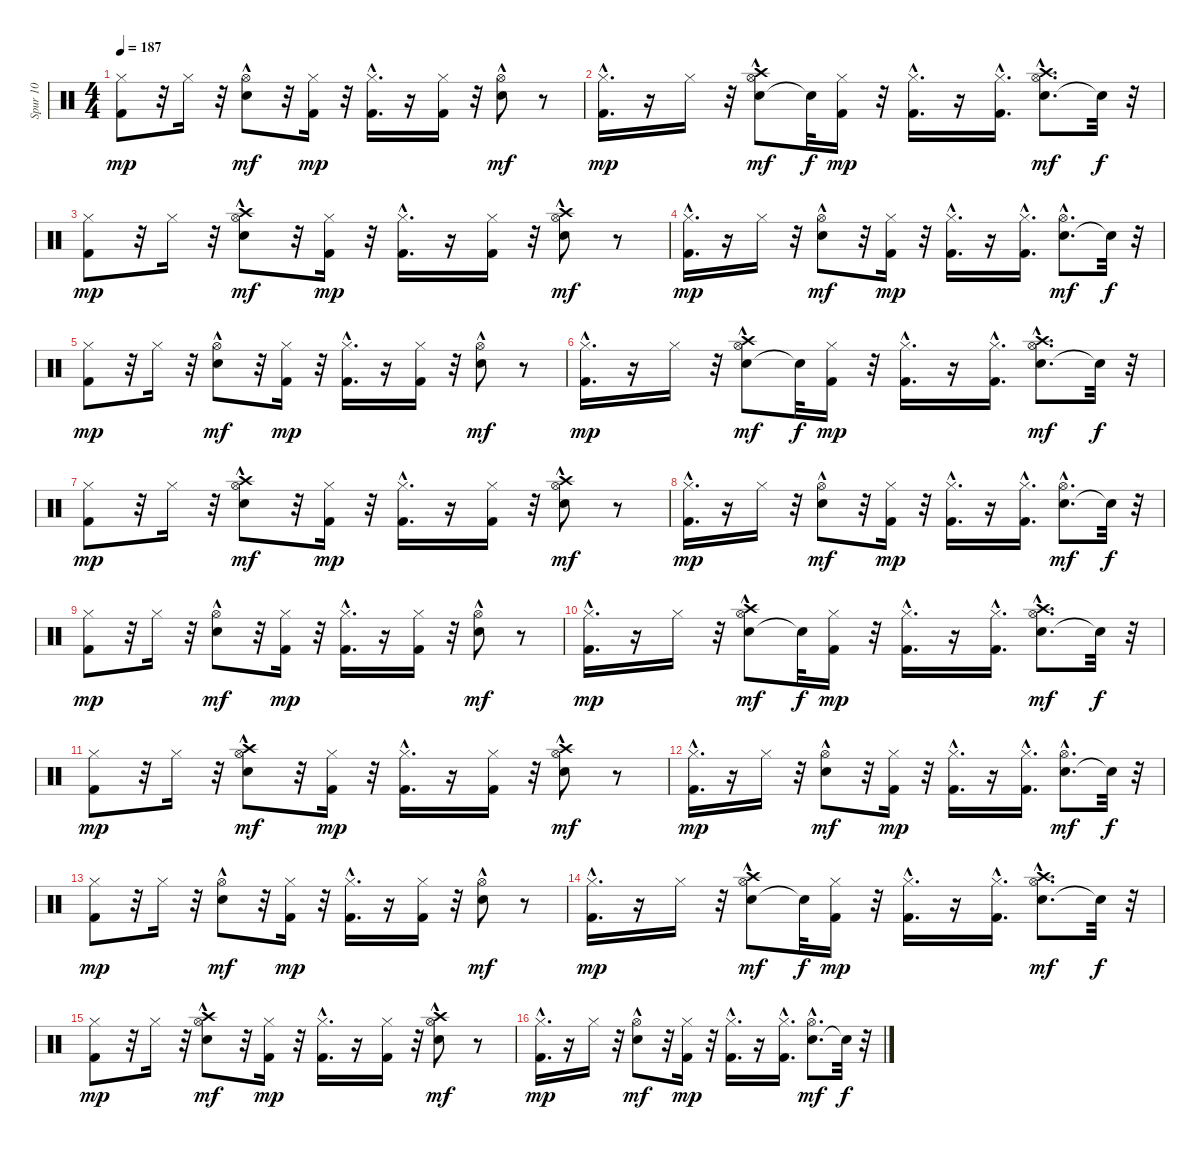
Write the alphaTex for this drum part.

\track ("Spur 10" "Spur 10") {instrument percussion}
\staff {score}
\articulation defaults
\ts (4 4)
\tempo 187
\clef neutral
\ks c
("Kick (hit) 2" "Hi-Hat (closed)").8{dy mp} r.32 "Hi-Hat (closed)".16 r.32 ("Electric Snare (hit)"{hac} "Hi-Hat (open)").8{dy mf} r.32 ("Kick (hit) 2" "Hi-Hat (closed)").16{dy mp} r.32 ("Kick (hit) 2"{hac} "Hi-Hat (closed)").16{d} r.16 ("Kick (hit) 2" "Hi-Hat (closed)").16 r.32 ("Electric Snare (hit)"{hac} "Hi-Hat (open)").8{dy mf} r.8 |
("Kick (hit) 2"{hac} "Hi-Hat (closed)").16{d dy mp} r.16 "Hi-Hat (closed)".16 r.32 ("Electric Snare (hit)"{hac} "Hi-Hat (open)" "Crash high (hit)").8{dy mf} "Snare (hit)"{t}.32{dy f} ("Kick (hit) 2" "Hi-Hat (closed)").16{dy mp} r.32 ("Kick (hit) 2"{hac} "Hi-Hat (closed)").16{d} r.16 ("Kick (hit) 2"{hac} "Hi-Hat (closed)").16{d} ("Electric Snare (hit)" "Hi-Hat (open)"{hac} "Crash high (hit)").8{d dy mf} "Snare (hit)"{t}.32{dy f} r.32 |
("Kick (hit) 2" "Hi-Hat (closed)").8{dy mp} r.32 "Hi-Hat (closed)".16 r.32 ("Electric Snare (hit)"{hac} "Hi-Hat (open)" "Crash high (hit)").8{dy mf} r.32 ("Kick (hit) 2" "Hi-Hat (closed)").16{dy mp} r.32 ("Kick (hit) 2"{hac} "Hi-Hat (closed)").16{d} r.16 ("Kick (hit) 2" "Hi-Hat (closed)").16 r.32 ("Electric Snare (hit)"{hac} "Hi-Hat (open)" "Crash high (hit)").8{dy mf} r.8 |
("Kick (hit) 2"{hac} "Hi-Hat (closed)").16{d dy mp} r.16 "Hi-Hat (closed)".16 r.32 ("Electric Snare (hit)"{hac} "Hi-Hat (open)").8{dy mf} r.32 ("Kick (hit) 2" "Hi-Hat (closed)").16{dy mp} r.32 ("Kick (hit) 2"{hac} "Hi-Hat (closed)").16{d} r.16 ("Kick (hit) 2"{hac} "Hi-Hat (closed)").16{d} ("Electric Snare (hit)" "Hi-Hat (open)"{hac}).8{d dy mf} "Snare (hit)"{t}.32{dy f} r.32 |
("Kick (hit) 2" "Hi-Hat (closed)").8{dy mp} r.32 "Hi-Hat (closed)".16 r.32 ("Electric Snare (hit)"{hac} "Hi-Hat (open)").8{dy mf} r.32 ("Kick (hit) 2" "Hi-Hat (closed)").16{dy mp} r.32 ("Kick (hit) 2"{hac} "Hi-Hat (closed)").16{d} r.16 ("Kick (hit) 2" "Hi-Hat (closed)").16 r.32 ("Electric Snare (hit)"{hac} "Hi-Hat (open)").8{dy mf} r.8 |
("Kick (hit) 2"{hac} "Hi-Hat (closed)").16{d dy mp} r.16 "Hi-Hat (closed)".16 r.32 ("Electric Snare (hit)"{hac} "Hi-Hat (open)" "Crash high (hit)").8{dy mf} "Snare (hit)"{t}.32{dy f} ("Kick (hit) 2" "Hi-Hat (closed)").16{dy mp} r.32 ("Kick (hit) 2"{hac} "Hi-Hat (closed)").16{d} r.16 ("Kick (hit) 2"{hac} "Hi-Hat (closed)").16{d} ("Electric Snare (hit)" "Hi-Hat (open)"{hac} "Crash high (hit)").8{d dy mf} "Snare (hit)"{t}.32{dy f} r.32 |
("Kick (hit) 2" "Hi-Hat (closed)").8{dy mp} r.32 "Hi-Hat (closed)".16 r.32 ("Electric Snare (hit)"{hac} "Hi-Hat (open)" "Crash high (hit)"{hac}).8{dy mf} r.32 ("Kick (hit) 2" "Hi-Hat (closed)").16{dy mp} r.32 ("Kick (hit) 2"{hac} "Hi-Hat (closed)").16{d} r.16 ("Kick (hit) 2" "Hi-Hat (closed)").16 r.32 ("Electric Snare (hit)"{hac} "Hi-Hat (open)" "Crash high (hit)"{hac}).8{dy mf} r.8 |
("Kick (hit) 2"{hac} "Hi-Hat (closed)").16{d dy mp} r.16 "Hi-Hat (closed)".16 r.32 ("Electric Snare (hit)"{hac} "Hi-Hat (open)").8{dy mf} r.32 ("Kick (hit) 2" "Hi-Hat (closed)").16{dy mp} r.32 ("Kick (hit) 2"{hac} "Hi-Hat (closed)").16{d} r.16 ("Kick (hit) 2"{hac} "Hi-Hat (closed)").16{d} ("Electric Snare (hit)" "Hi-Hat (open)"{hac}).8{d dy mf} "Snare (hit)"{t}.32{dy f} r.32 |
("Kick (hit) 2" "Hi-Hat (closed)").8{dy mp} r.32 "Hi-Hat (closed)".16 r.32 ("Electric Snare (hit)"{hac} "Hi-Hat (open)").8{dy mf} r.32 ("Kick (hit) 2" "Hi-Hat (closed)").16{dy mp} r.32 ("Kick (hit) 2"{hac} "Hi-Hat (closed)").16{d} r.16 ("Kick (hit) 2" "Hi-Hat (closed)").16 r.32 ("Electric Snare (hit)"{hac} "Hi-Hat (open)").8{dy mf} r.8 |
("Kick (hit) 2"{hac} "Hi-Hat (closed)").16{d dy mp} r.16 "Hi-Hat (closed)".16 r.32 ("Electric Snare (hit)"{hac} "Hi-Hat (open)" "Crash high (hit)").8{dy mf} "Snare (hit)"{t}.32{dy f} ("Kick (hit) 2" "Hi-Hat (closed)").16{dy mp} r.32 ("Kick (hit) 2"{hac} "Hi-Hat (closed)").16{d} r.16 ("Kick (hit) 2"{hac} "Hi-Hat (closed)").16{d} ("Electric Snare (hit)" "Hi-Hat (open)"{hac} "Crash high (hit)").8{d dy mf} "Snare (hit)"{t}.32{dy f} r.32 |
("Kick (hit) 2" "Hi-Hat (closed)").8{dy mp} r.32 "Hi-Hat (closed)".16 r.32 ("Electric Snare (hit)"{hac} "Hi-Hat (open)" "Crash high (hit)").8{dy mf} r.32 ("Kick (hit) 2" "Hi-Hat (closed)").16{dy mp} r.32 ("Kick (hit) 2"{hac} "Hi-Hat (closed)").16{d} r.16 ("Kick (hit) 2" "Hi-Hat (closed)").16 r.32 ("Electric Snare (hit)"{hac} "Hi-Hat (open)" "Crash high (hit)").8{dy mf} r.8 |
("Kick (hit) 2"{hac} "Hi-Hat (closed)").16{d dy mp} r.16 "Hi-Hat (closed)".16 r.32 ("Electric Snare (hit)"{hac} "Hi-Hat (open)").8{dy mf} r.32 ("Kick (hit) 2" "Hi-Hat (closed)").16{dy mp} r.32 ("Kick (hit) 2"{hac} "Hi-Hat (closed)").16{d} r.16 ("Kick (hit) 2"{hac} "Hi-Hat (closed)").16{d} ("Electric Snare (hit)" "Hi-Hat (open)"{hac}).8{d dy mf} "Snare (hit)"{t}.32{dy f} r.32 |
("Kick (hit) 2" "Hi-Hat (closed)").8{dy mp} r.32 "Hi-Hat (closed)".16 r.32 ("Electric Snare (hit)"{hac} "Hi-Hat (open)").8{dy mf} r.32 ("Kick (hit) 2" "Hi-Hat (closed)").16{dy mp} r.32 ("Kick (hit) 2"{hac} "Hi-Hat (closed)").16{d} r.16 ("Kick (hit) 2" "Hi-Hat (closed)").16 r.32 ("Electric Snare (hit)"{hac} "Hi-Hat (open)").8{dy mf} r.8 |
("Kick (hit) 2"{hac} "Hi-Hat (closed)").16{d dy mp} r.16 "Hi-Hat (closed)".16 r.32 ("Electric Snare (hit)"{hac} "Hi-Hat (open)" "Crash high (hit)").8{dy mf} "Snare (hit)"{t}.32{dy f} ("Kick (hit) 2" "Hi-Hat (closed)").16{dy mp} r.32 ("Kick (hit) 2"{hac} "Hi-Hat (closed)").16{d} r.16 ("Kick (hit) 2"{hac} "Hi-Hat (closed)").16{d} ("Electric Snare (hit)" "Hi-Hat (open)"{hac} "Crash high (hit)").8{d dy mf} "Snare (hit)"{t}.32{dy f} r.32 |
("Kick (hit) 2" "Hi-Hat (closed)").8{dy mp} r.32 "Hi-Hat (closed)".16 r.32 ("Electric Snare (hit)"{hac} "Hi-Hat (open)" "Crash high (hit)"{hac}).8{dy mf} r.32 ("Kick (hit) 2" "Hi-Hat (closed)").16{dy mp} r.32 ("Kick (hit) 2"{hac} "Hi-Hat (closed)").16{d} r.16 ("Kick (hit) 2" "Hi-Hat (closed)").16 r.32 ("Electric Snare (hit)"{hac} "Hi-Hat (open)" "Crash high (hit)"{hac}).8{dy mf} r.8 |
("Kick (hit) 2"{hac} "Hi-Hat (closed)").16{d dy mp} r.16 "Hi-Hat (closed)".16 r.32 ("Electric Snare (hit)"{hac} "Hi-Hat (open)").8{dy mf} r.32 ("Kick (hit) 2" "Hi-Hat (closed)").16{dy mp} r.32 ("Kick (hit) 2"{hac} "Hi-Hat (closed)").16{d} r.16 ("Kick (hit) 2"{hac} "Hi-Hat (closed)").16{d} ("Electric Snare (hit)" "Hi-Hat (open)"{hac}).8{d dy mf} "Snare (hit)"{t}.32{dy f} r.32
